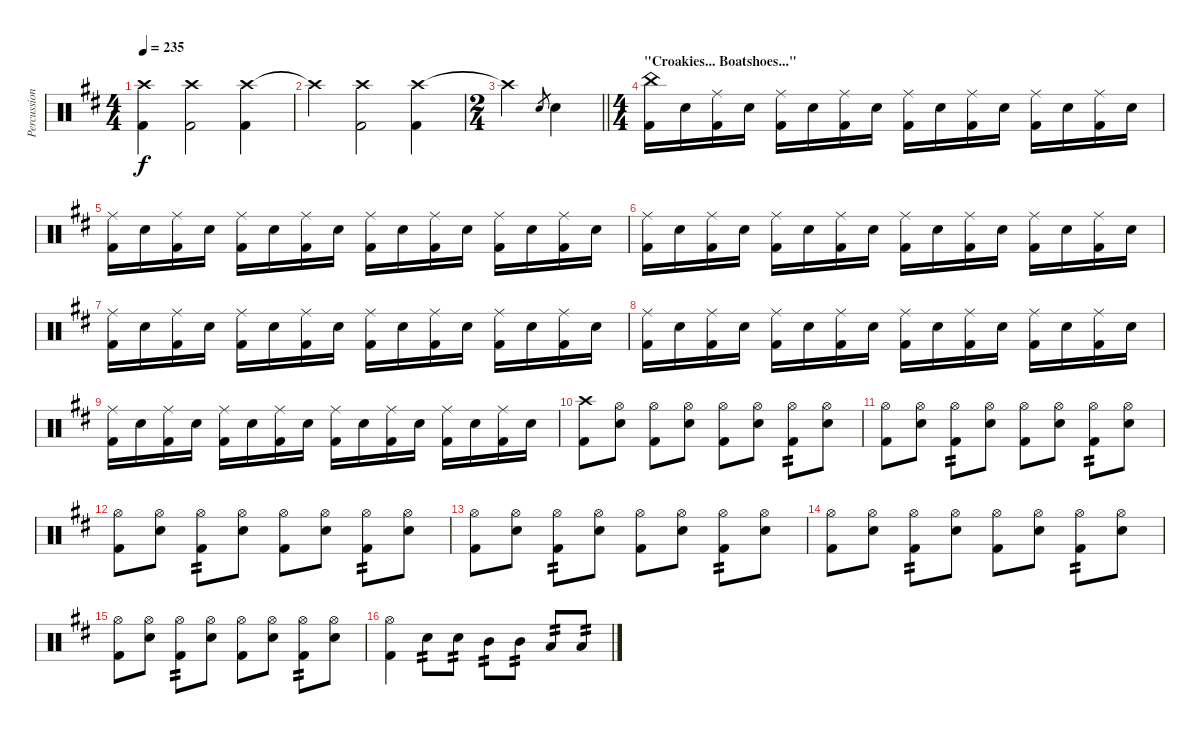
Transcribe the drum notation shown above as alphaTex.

\track ("Percussion" "Percussion") {instrument percussion}
\staff {score}
\articulation defaults
\ts (4 4)
\tempo 235
\clef neutral
\ks d
("Crash high (hit)" "Kick (hit) 2").4{dy f} ("Crash high (hit)" "Kick (hit) 2").2 ("Crash high (hit)" "Kick (hit) 2").4 |
"Crash high (hit)"{t}.4 ("Crash high (hit)" "Kick (hit) 2").2 ("Crash high (hit)" "Kick (hit) 2").4 |
\ts (2 4)
\barLineRight lightlight "Crash high (hit)"{t}.4 "Electric Snare (hit)".8{gr} "Electric Snare (hit)".4
|
\ts (4 4)
\section ("" "\"Croakies... Boatshoes...\"")
("China (hit)" "Kick (hit) 2").16 "Electric Snare (hit)".16 ("Ride (middle)" "Kick (hit) 2").16 "Electric Snare (hit)".16 ("Ride (middle)" "Kick (hit) 2").16 "Electric Snare (hit)".16 ("Ride (middle)" "Kick (hit) 2").16 "Electric Snare (hit)".16 ("Ride (middle)" "Kick (hit) 2").16 "Electric Snare (hit)".16 ("Ride (middle)" "Kick (hit) 2").16 "Electric Snare (hit)".16 ("Ride (middle)" "Kick (hit) 2").16 "Electric Snare (hit)".16 ("Ride (middle)" "Kick (hit) 2").16 "Electric Snare (hit)".16 |
("Ride (middle)" "Kick (hit) 2").16 "Electric Snare (hit)".16 ("Ride (middle)" "Kick (hit) 2").16 "Electric Snare (hit)".16 ("Ride (middle)" "Kick (hit) 2").16 "Electric Snare (hit)".16 ("Ride (middle)" "Kick (hit) 2").16 "Electric Snare (hit)".16 ("Ride (middle)" "Kick (hit) 2").16 "Electric Snare (hit)".16 ("Ride (middle)" "Kick (hit) 2").16 "Electric Snare (hit)".16 ("Ride (middle)" "Kick (hit) 2").16 "Electric Snare (hit)".16 ("Ride (middle)" "Kick (hit) 2").16 "Electric Snare (hit)".16 |
("Ride (middle)" "Kick (hit) 2").16 "Electric Snare (hit)".16 ("Ride (middle)" "Kick (hit) 2").16 "Electric Snare (hit)".16 ("Ride (middle)" "Kick (hit) 2").16 "Electric Snare (hit)".16 ("Ride (middle)" "Kick (hit) 2").16 "Electric Snare (hit)".16 ("Ride (middle)" "Kick (hit) 2").16 "Electric Snare (hit)".16 ("Ride (middle)" "Kick (hit) 2").16 "Electric Snare (hit)".16 ("Ride (middle)" "Kick (hit) 2").16 "Electric Snare (hit)".16 ("Ride (middle)" "Kick (hit) 2").16 "Electric Snare (hit)".16 |
("Ride (middle)" "Kick (hit) 2").16 "Electric Snare (hit)".16 ("Ride (middle)" "Kick (hit) 2").16 "Electric Snare (hit)".16 ("Ride (middle)" "Kick (hit) 2").16 "Electric Snare (hit)".16 ("Ride (middle)" "Kick (hit) 2").16 "Electric Snare (hit)".16 ("Ride (middle)" "Kick (hit) 2").16 "Electric Snare (hit)".16 ("Ride (middle)" "Kick (hit) 2").16 "Electric Snare (hit)".16 ("Ride (middle)" "Kick (hit) 2").16 "Electric Snare (hit)".16 ("Ride (middle)" "Kick (hit) 2").16 "Electric Snare (hit)".16 |
("Ride (middle)" "Kick (hit) 2").16 "Electric Snare (hit)".16 ("Ride (middle)" "Kick (hit) 2").16 "Electric Snare (hit)".16 ("Ride (middle)" "Kick (hit) 2").16 "Electric Snare (hit)".16 ("Ride (middle)" "Kick (hit) 2").16 "Electric Snare (hit)".16 ("Ride (middle)" "Kick (hit) 2").16 "Electric Snare (hit)".16 ("Ride (middle)" "Kick (hit) 2").16 "Electric Snare (hit)".16 ("Ride (middle)" "Kick (hit) 2").16 "Electric Snare (hit)".16 ("Ride (middle)" "Kick (hit) 2").16 "Electric Snare (hit)".16 |
("Ride (middle)" "Kick (hit) 2").16 "Electric Snare (hit)".16 ("Ride (middle)" "Kick (hit) 2").16 "Electric Snare (hit)".16 ("Ride (middle)" "Kick (hit) 2").16 "Electric Snare (hit)".16 ("Ride (middle)" "Kick (hit) 2").16 "Electric Snare (hit)".16 ("Ride (middle)" "Kick (hit) 2").16 "Electric Snare (hit)".16 ("Ride (middle)" "Kick (hit) 2").16 "Electric Snare (hit)".16 ("Ride (middle)" "Kick (hit) 2").16 "Electric Snare (hit)".16 ("Ride (middle)" "Kick (hit) 2").16 "Electric Snare (hit)".16 |
("Crash high (hit)" "Kick (hit) 2").8 ("Electric Snare (hit)" "Hi-Hat (open)").8 ("Hi-Hat (open)" "Kick (hit) 2").8 ("Hi-Hat (open)" "Electric Snare (hit)").8 ("Hi-Hat (open)" "Kick (hit) 2").8 ("Hi-Hat (open)" "Electric Snare (hit)").8 ("Hi-Hat (open)" "Kick (hit) 2").8{tp 2} ("Hi-Hat (open)" "Electric Snare (hit)").8 |
("Hi-Hat (open)" "Kick (hit) 2").8 ("Hi-Hat (open)" "Electric Snare (hit)").8 ("Hi-Hat (open)" "Kick (hit) 2").8{tp 2} ("Hi-Hat (open)" "Electric Snare (hit)").8 ("Hi-Hat (open)" "Kick (hit) 2").8 ("Hi-Hat (open)" "Electric Snare (hit)").8 ("Hi-Hat (open)" "Kick (hit) 2").8{tp 2} ("Hi-Hat (open)" "Electric Snare (hit)").8 |
("Hi-Hat (open)" "Kick (hit) 2").8 ("Hi-Hat (open)" "Electric Snare (hit)").8 ("Hi-Hat (open)" "Kick (hit) 2").8{tp 2} ("Hi-Hat (open)" "Electric Snare (hit)").8 ("Hi-Hat (open)" "Kick (hit) 2").8 ("Hi-Hat (open)" "Electric Snare (hit)").8 ("Hi-Hat (open)" "Kick (hit) 2").8{tp 2} ("Hi-Hat (open)" "Electric Snare (hit)").8 |
("Hi-Hat (open)" "Kick (hit) 2").8 ("Hi-Hat (open)" "Electric Snare (hit)").8 ("Hi-Hat (open)" "Kick (hit) 2").8{tp 2} ("Hi-Hat (open)" "Electric Snare (hit)").8 ("Hi-Hat (open)" "Kick (hit) 2").8 ("Hi-Hat (open)" "Electric Snare (hit)").8 ("Hi-Hat (open)" "Kick (hit) 2").8{tp 2} ("Hi-Hat (open)" "Electric Snare (hit)").8 |
("Hi-Hat (open)" "Kick (hit) 2").8 ("Hi-Hat (open)" "Electric Snare (hit)").8 ("Hi-Hat (open)" "Kick (hit) 2").8{tp 2} ("Hi-Hat (open)" "Electric Snare (hit)").8 ("Hi-Hat (open)" "Kick (hit) 2").8 ("Hi-Hat (open)" "Electric Snare (hit)").8 ("Hi-Hat (open)" "Kick (hit) 2").8{tp 2} ("Hi-Hat (open)" "Electric Snare (hit)").8 |
("Hi-Hat (open)" "Kick (hit) 2").8 ("Hi-Hat (open)" "Electric Snare (hit)").8 ("Hi-Hat (open)" "Kick (hit) 2").8{tp 2} ("Hi-Hat (open)" "Electric Snare (hit)").8 ("Hi-Hat (open)" "Kick (hit) 2").8 ("Hi-Hat (open)" "Electric Snare (hit)").8 ("Hi-Hat (open)" "Kick (hit) 2").8{tp 2} ("Hi-Hat (open)" "Electric Snare (hit)").8 |
("Hi-Hat (open)" "Kick (hit) 2").4 "Electric Snare (hit)".8{tp 2} "Electric Snare (hit)".8{tp 2} "Mid Tom (hit)".8{tp 2} "Mid Tom (hit)".8{tp 2} "Low Tom (hit)".8{tp 2} "Low Tom (hit)".8{tp 2}
